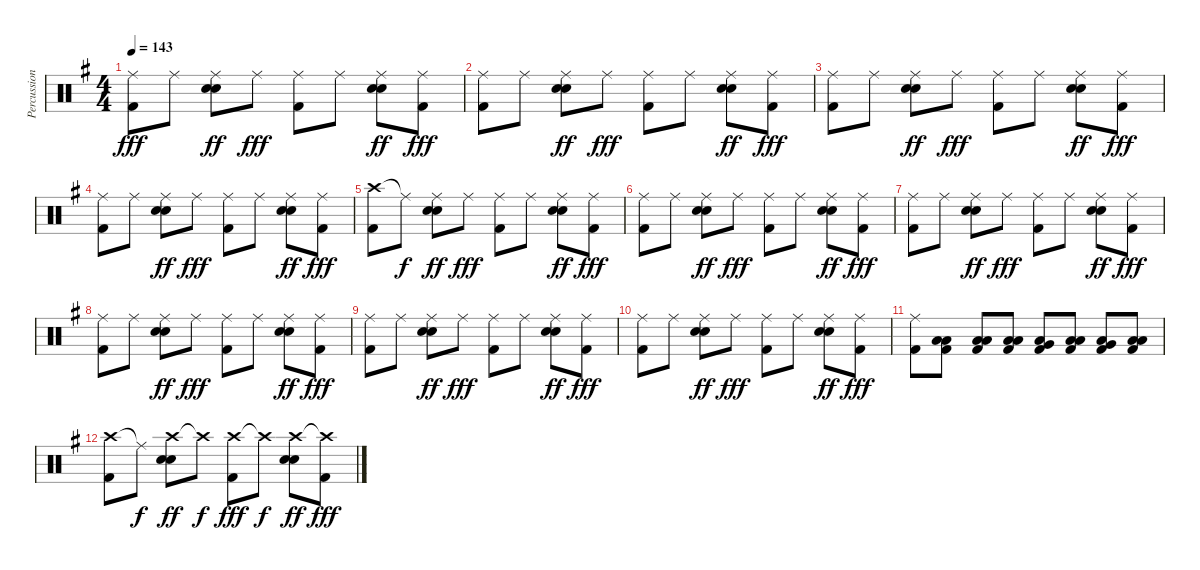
\track ("Percussion" "Percussion") {instrument percussion}
\staff {score}
\articulation defaults
\ts (4 4)
\tempo 143
\clef neutral
\ks g
("Ride (middle)" "Kick (hit) 2").8{dy fff} "Ride (middle)".8 ("Ride (middle)" "Snare (hit) 2" "Electric Snare (hit)").8{dy ff} "Ride (middle)".8{dy fff} ("Ride (middle)" "Kick (hit) 2").8 "Ride (middle)".8 ("Ride (middle)" "Snare (hit) 2" "Electric Snare (hit)").8{dy ff} ("Ride (middle)" "Kick (hit) 2").8{dy fff} |
("Ride (middle)" "Kick (hit) 2").8 "Ride (middle)".8 ("Ride (middle)" "Snare (hit) 2" "Electric Snare (hit)").8{dy ff} "Ride (middle)".8{dy fff} ("Ride (middle)" "Kick (hit) 2").8 "Ride (middle)".8 ("Ride (middle)" "Snare (hit) 2" "Electric Snare (hit)").8{dy ff} ("Ride (middle)" "Kick (hit) 2").8{dy fff} |
("Ride (middle)" "Kick (hit) 2").8 "Ride (middle)".8 ("Ride (middle)" "Snare (hit) 2" "Electric Snare (hit)").8{dy ff} "Ride (middle)".8{dy fff} ("Ride (middle)" "Kick (hit) 2").8 "Ride (middle)".8 ("Ride (middle)" "Snare (hit) 2" "Electric Snare (hit)").8{dy ff} ("Ride (middle)" "Kick (hit) 2").8{dy fff} |
("Ride (middle)" "Kick (hit) 2").8 "Ride (middle)".8 ("Ride (middle)" "Snare (hit) 2" "Electric Snare (hit)").8{dy ff} "Ride (middle)".8{dy fff} ("Ride (middle)" "Kick (hit) 2").8 "Ride (middle)".8 ("Ride (middle)" "Snare (hit) 2" "Electric Snare (hit)").8{dy ff} ("Ride (middle)" "Kick (hit) 2").8{dy fff} |
("Crash high (hit)" "Kick (hit) 2").8 "Ride (middle)"{t}.8{dy f} ("Ride (middle)" "Snare (hit) 2" "Electric Snare (hit)").8{dy ff} "Ride (middle)".8{dy fff} ("Ride (middle)" "Kick (hit) 2").8 "Ride (middle)".8 ("Ride (middle)" "Snare (hit) 2" "Electric Snare (hit)").8{dy ff} ("Ride (middle)" "Kick (hit) 2").8{dy fff} |
("Ride (middle)" "Kick (hit) 2").8 "Ride (middle)".8 ("Ride (middle)" "Snare (hit) 2" "Electric Snare (hit)").8{dy ff} "Ride (middle)".8{dy fff} ("Ride (middle)" "Kick (hit) 2").8 "Ride (middle)".8 ("Ride (middle)" "Snare (hit) 2" "Electric Snare (hit)").8{dy ff} ("Ride (middle)" "Kick (hit) 2").8{dy fff} |
("Ride (middle)" "Kick (hit) 2").8 "Ride (middle)".8 ("Ride (middle)" "Snare (hit) 2" "Electric Snare (hit)").8{dy ff} "Ride (middle)".8{dy fff} ("Ride (middle)" "Kick (hit) 2").8 "Ride (middle)".8 ("Ride (middle)" "Snare (hit) 2" "Electric Snare (hit)").8{dy ff} ("Ride (middle)" "Kick (hit) 2").8{dy fff} |
("Ride (middle)" "Kick (hit) 2").8 "Ride (middle)".8 ("Ride (middle)" "Snare (hit) 2" "Electric Snare (hit)").8{dy ff} "Ride (middle)".8{dy fff} ("Ride (middle)" "Kick (hit) 2").8 "Ride (middle)".8 ("Ride (middle)" "Snare (hit) 2" "Electric Snare (hit)").8{dy ff} ("Ride (middle)" "Kick (hit) 2").8{dy fff} |
("Ride (middle)" "Kick (hit) 2").8 "Ride (middle)".8 ("Ride (middle)" "Snare (hit) 2" "Electric Snare (hit)").8{dy ff} "Ride (middle)".8{dy fff} ("Ride (middle)" "Kick (hit) 2").8 "Ride (middle)".8 ("Ride (middle)" "Snare (hit) 2" "Electric Snare (hit)").8{dy ff} ("Ride (middle)" "Kick (hit) 2").8{dy fff} |
("Ride (middle)" "Kick (hit) 2").8 "Ride (middle)".8 ("Ride (middle)" "Snare (hit) 2" "Electric Snare (hit)").8{dy ff} "Ride (middle)".8{dy fff} ("Ride (middle)" "Kick (hit) 2").8 "Ride (middle)".8 ("Ride (middle)" "Snare (hit) 2" "Electric Snare (hit)").8{dy ff} ("Ride (middle)" "Kick (hit) 2").8{dy fff} |
("Ride (middle)" "Kick (hit) 2").8 ("Low Tom (hit)" "Low Floor Tom (hit)" "Kick (hit) 2").8 ("Low Tom (hit)" "Low Floor Tom (hit)" "Kick (hit) 2").8 ("Low Tom (hit)" "Low Floor Tom (hit)" "Kick (hit) 2").8 ("Low Tom (hit)" "Very Low Tom (hit)" "Kick (hit) 2").8 ("Low Tom (hit)" "Low Floor Tom (hit)" "Kick (hit) 2").8 ("Low Tom (hit)" "Very Low Tom (hit)" "Kick (hit) 2").8 ("Low Tom (hit)" "Low Floor Tom (hit)" "Kick (hit) 2").8 |
("Crash high (hit)" "Kick (hit) 2").8 "Ride (middle)"{t}.8{dy f} ("Crash high (hit)" "Snare (hit) 2" "Electric Snare (hit)").8{dy ff} "Crash high (hit)"{t}.8{dy f} ("Crash high (hit)" "Kick (hit) 2").8{dy fff} "Crash high (hit)"{t}.8{dy f} ("Crash high (hit)" "Snare (hit) 2" "Electric Snare (hit)").8{dy ff} ("Crash high (hit)"{t} "Kick (hit) 2").8{dy fff}
